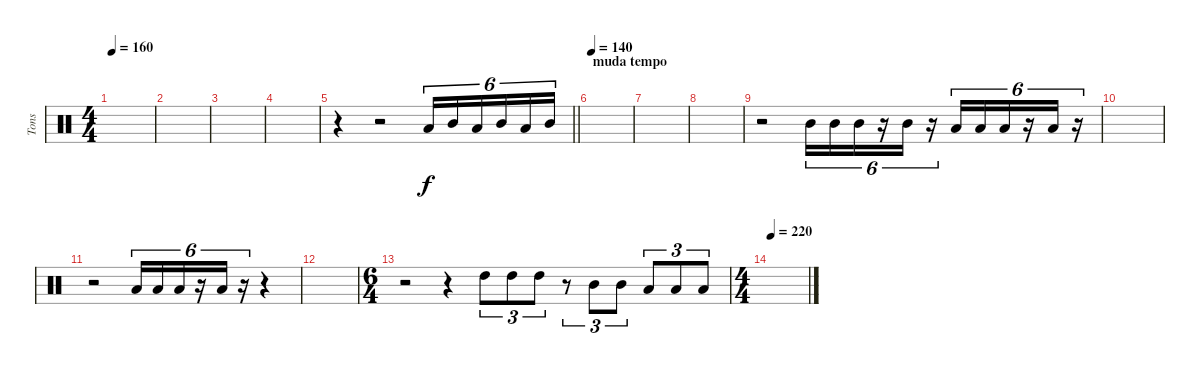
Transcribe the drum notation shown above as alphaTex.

\track ("Tons" "Tons") {instrument percussion}
\staff {score}
\articulation defaults
\ts (4 4)
\tempo 160
\clef neutral
\ks c
|
|
|
|
\barLineRight lightlight
r.4 r.2 "Low Tom (hit)".16{tu (6 4)} "Mid Tom (hit)".16{tu (6 4)} "Low Tom (hit)".16{tu (6 4)} "Mid Tom (hit)".16{tu (6 4)} "Low Tom (hit)".16{tu (6 4)} "Mid Tom (hit)".16{tu (6 4)} |
\section ("" "muda tempo")
\tempo 140
|
|
|
r.2 "Mid Tom (hit)".16{tu (6 4)} "Mid Tom (hit)".16{tu (6 4)} "Mid Tom (hit)".16{tu (6 4)} r.16{tu (6 4)} "Mid Tom (hit)".16{tu (6 4)} r.16{tu (6 4)} "Low Tom (hit)".16{tu (6 4)} "Low Tom (hit)".16{tu (6 4)} "Low Tom (hit)".16{tu (6 4)} r.16{tu (6 4)} "Low Tom (hit)".16{tu (6 4)} r.16{tu (6 4)} |
|
r.2 "Low Tom (hit)".16{tu (6 4)} "Low Tom (hit)".16{tu (6 4)} "Low Tom (hit)".16{tu (6 4)} r.16{tu (6 4)} "Low Tom (hit)".16{tu (6 4)} r.16{tu (6 4)} r.4 |
|
\ts (6 4)
r.2 r.4 "High Tom (hit)".8{tu (3 2)} "High Tom (hit)".8{tu (3 2)} "High Tom (hit)".8{tu (3 2)} r.8{tu (3 2)} "Mid Tom (hit)".8{tu (3 2)} "Mid Tom (hit)".8{tu (3 2)} "Low Tom (hit)".8{tu (3 2)} "Low Tom (hit)".8{tu (3 2)} "Low Tom (hit)".8{tu (3 2)} |
\ts (4 4)
\tempo 220
